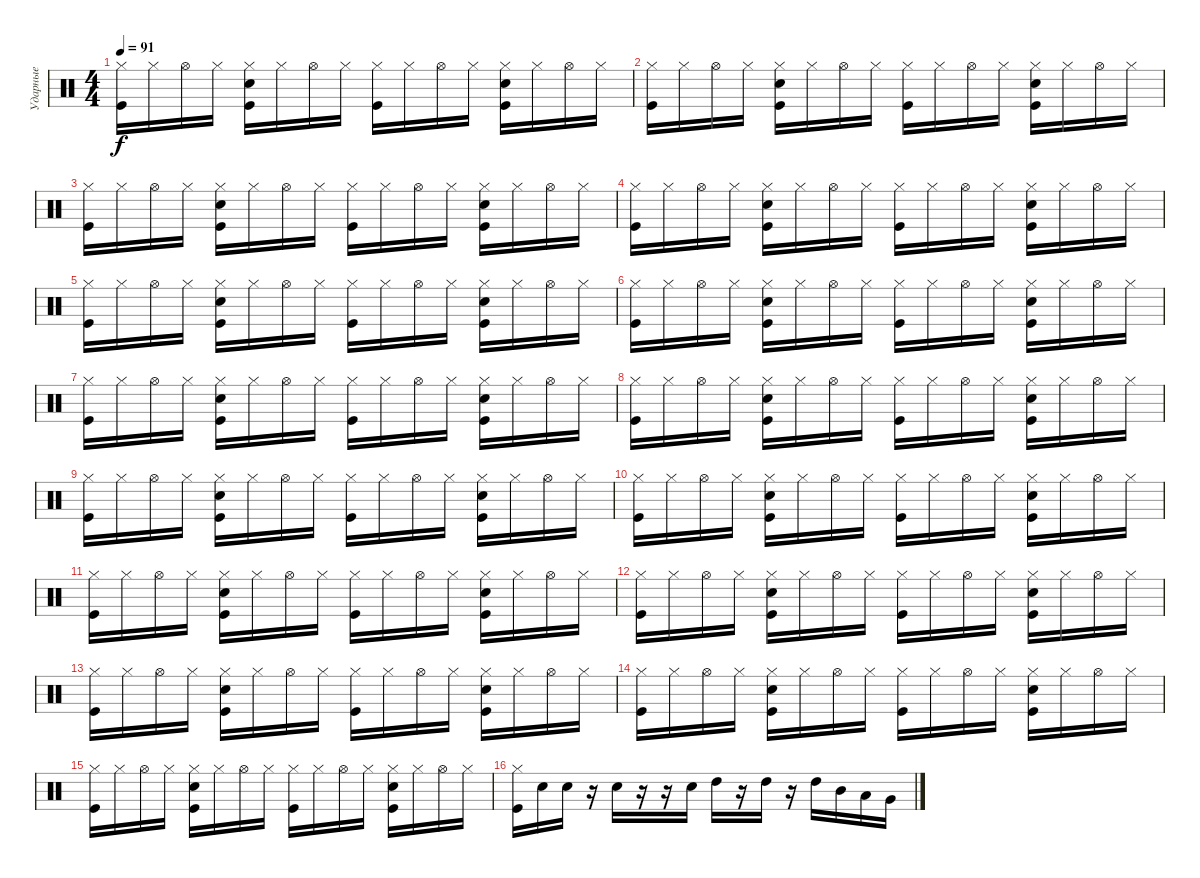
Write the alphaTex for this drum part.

\track ("Ударные" "Ударные") {instrument percussion}
\staff {score}
\articulation defaults
\ts (4 4)
\tempo 91
\clef neutral
\ks c
("Hi-Hat (closed)" "Kick (hit)").16{dy f} "Hi-Hat (closed)".16 "Hi-Hat (open)".16 "Hi-Hat (closed)".16 ("Hi-Hat (closed)" "Snare (hit) 2" "Kick (hit)").16 "Hi-Hat (closed)".16 "Hi-Hat (open)".16 "Hi-Hat (closed)".16 ("Hi-Hat (closed)" "Kick (hit)").16 "Hi-Hat (closed)".16 "Hi-Hat (open)".16 "Hi-Hat (closed)".16 ("Hi-Hat (closed)" "Snare (hit) 2" "Kick (hit)").16 "Hi-Hat (closed)".16 "Hi-Hat (open)".16 "Hi-Hat (closed)".16 |
("Hi-Hat (closed)" "Kick (hit)").16 "Hi-Hat (closed)".16 "Hi-Hat (open)".16 "Hi-Hat (closed)".16 ("Hi-Hat (closed)" "Snare (hit) 2" "Kick (hit)").16 "Hi-Hat (closed)".16 "Hi-Hat (open)".16 "Hi-Hat (closed)".16 ("Hi-Hat (closed)" "Kick (hit)").16 "Hi-Hat (closed)".16 "Hi-Hat (open)".16 "Hi-Hat (closed)".16 ("Hi-Hat (closed)" "Snare (hit) 2" "Kick (hit)").16 "Hi-Hat (closed)".16 "Hi-Hat (open)".16 "Hi-Hat (closed)".16 |
("Hi-Hat (closed)" "Kick (hit)").16 "Hi-Hat (closed)".16 "Hi-Hat (open)".16 "Hi-Hat (closed)".16 ("Hi-Hat (closed)" "Snare (hit) 2" "Kick (hit)").16 "Hi-Hat (closed)".16 "Hi-Hat (open)".16 "Hi-Hat (closed)".16 ("Hi-Hat (closed)" "Kick (hit)").16 "Hi-Hat (closed)".16 "Hi-Hat (open)".16 "Hi-Hat (closed)".16 ("Hi-Hat (closed)" "Snare (hit) 2" "Kick (hit)").16 "Hi-Hat (closed)".16 "Hi-Hat (open)".16 "Hi-Hat (closed)".16 |
("Hi-Hat (closed)" "Kick (hit)").16 "Hi-Hat (closed)".16 "Hi-Hat (open)".16 "Hi-Hat (closed)".16 ("Hi-Hat (closed)" "Snare (hit) 2" "Kick (hit)").16 "Hi-Hat (closed)".16 "Hi-Hat (open)".16 "Hi-Hat (closed)".16 ("Hi-Hat (closed)" "Kick (hit)").16 "Hi-Hat (closed)".16 "Hi-Hat (open)".16 "Hi-Hat (closed)".16 ("Hi-Hat (closed)" "Snare (hit) 2" "Kick (hit)").16 "Hi-Hat (closed)".16 "Hi-Hat (open)".16 "Hi-Hat (closed)".16 |
("Hi-Hat (closed)" "Kick (hit)").16 "Hi-Hat (closed)".16 "Hi-Hat (open)".16 "Hi-Hat (closed)".16 ("Hi-Hat (closed)" "Snare (hit) 2" "Kick (hit)").16 "Hi-Hat (closed)".16 "Hi-Hat (open)".16 "Hi-Hat (closed)".16 ("Hi-Hat (closed)" "Kick (hit)").16 "Hi-Hat (closed)".16 "Hi-Hat (open)".16 "Hi-Hat (closed)".16 ("Hi-Hat (closed)" "Snare (hit) 2" "Kick (hit)").16 "Hi-Hat (closed)".16 "Hi-Hat (open)".16 "Hi-Hat (closed)".16 |
("Hi-Hat (closed)" "Kick (hit)").16 "Hi-Hat (closed)".16 "Hi-Hat (open)".16 "Hi-Hat (closed)".16 ("Hi-Hat (closed)" "Snare (hit) 2" "Kick (hit)").16 "Hi-Hat (closed)".16 "Hi-Hat (open)".16 "Hi-Hat (closed)".16 ("Hi-Hat (closed)" "Kick (hit)").16 "Hi-Hat (closed)".16 "Hi-Hat (open)".16 "Hi-Hat (closed)".16 ("Hi-Hat (closed)" "Snare (hit) 2" "Kick (hit)").16 "Hi-Hat (closed)".16 "Hi-Hat (open)".16 "Hi-Hat (closed)".16 |
("Hi-Hat (closed)" "Kick (hit)").16 "Hi-Hat (closed)".16 "Hi-Hat (open)".16 "Hi-Hat (closed)".16 ("Hi-Hat (closed)" "Snare (hit) 2" "Kick (hit)").16 "Hi-Hat (closed)".16 "Hi-Hat (open)".16 "Hi-Hat (closed)".16 ("Hi-Hat (closed)" "Kick (hit)").16 "Hi-Hat (closed)".16 "Hi-Hat (open)".16 "Hi-Hat (closed)".16 ("Hi-Hat (closed)" "Snare (hit) 2" "Kick (hit)").16 "Hi-Hat (closed)".16 "Hi-Hat (open)".16 "Hi-Hat (closed)".16 |
("Hi-Hat (closed)" "Kick (hit)").16 "Hi-Hat (closed)".16 "Hi-Hat (open)".16 "Hi-Hat (closed)".16 ("Hi-Hat (closed)" "Snare (hit) 2" "Kick (hit)").16 "Hi-Hat (closed)".16 "Hi-Hat (open)".16 "Hi-Hat (closed)".16 ("Hi-Hat (closed)" "Kick (hit)").16 "Hi-Hat (closed)".16 "Hi-Hat (open)".16 "Hi-Hat (closed)".16 ("Hi-Hat (closed)" "Snare (hit) 2" "Kick (hit)").16 "Hi-Hat (closed)".16 "Hi-Hat (open)".16 "Hi-Hat (closed)".16 |
("Hi-Hat (closed)" "Kick (hit)").16 "Hi-Hat (closed)".16 "Hi-Hat (open)".16 "Hi-Hat (closed)".16 ("Hi-Hat (closed)" "Snare (hit) 2" "Kick (hit)").16 "Hi-Hat (closed)".16 "Hi-Hat (open)".16 "Hi-Hat (closed)".16 ("Hi-Hat (closed)" "Kick (hit)").16 "Hi-Hat (closed)".16 "Hi-Hat (open)".16 "Hi-Hat (closed)".16 ("Hi-Hat (closed)" "Snare (hit) 2" "Kick (hit)").16 "Hi-Hat (closed)".16 "Hi-Hat (open)".16 "Hi-Hat (closed)".16 |
("Hi-Hat (closed)" "Kick (hit)").16 "Hi-Hat (closed)".16 "Hi-Hat (open)".16 "Hi-Hat (closed)".16 ("Hi-Hat (closed)" "Snare (hit) 2" "Kick (hit)").16 "Hi-Hat (closed)".16 "Hi-Hat (open)".16 "Hi-Hat (closed)".16 ("Hi-Hat (closed)" "Kick (hit)").16 "Hi-Hat (closed)".16 "Hi-Hat (open)".16 "Hi-Hat (closed)".16 ("Hi-Hat (closed)" "Snare (hit) 2" "Kick (hit)").16 "Hi-Hat (closed)".16 "Hi-Hat (open)".16 "Hi-Hat (closed)".16 |
("Hi-Hat (closed)" "Kick (hit)").16 "Hi-Hat (closed)".16 "Hi-Hat (open)".16 "Hi-Hat (closed)".16 ("Hi-Hat (closed)" "Snare (hit) 2" "Kick (hit)").16 "Hi-Hat (closed)".16 "Hi-Hat (open)".16 "Hi-Hat (closed)".16 ("Hi-Hat (closed)" "Kick (hit)").16 "Hi-Hat (closed)".16 "Hi-Hat (open)".16 "Hi-Hat (closed)".16 ("Hi-Hat (closed)" "Snare (hit) 2" "Kick (hit)").16 "Hi-Hat (closed)".16 "Hi-Hat (open)".16 "Hi-Hat (closed)".16 |
("Hi-Hat (closed)" "Kick (hit)").16 "Hi-Hat (closed)".16 "Hi-Hat (open)".16 "Hi-Hat (closed)".16 ("Hi-Hat (closed)" "Snare (hit) 2" "Kick (hit)").16 "Hi-Hat (closed)".16 "Hi-Hat (open)".16 "Hi-Hat (closed)".16 ("Hi-Hat (closed)" "Kick (hit)").16 "Hi-Hat (closed)".16 "Hi-Hat (open)".16 "Hi-Hat (closed)".16 ("Hi-Hat (closed)" "Snare (hit) 2" "Kick (hit)").16 "Hi-Hat (closed)".16 "Hi-Hat (open)".16 "Hi-Hat (closed)".16 |
("Hi-Hat (closed)" "Kick (hit)").16 "Hi-Hat (closed)".16 "Hi-Hat (open)".16 "Hi-Hat (closed)".16 ("Hi-Hat (closed)" "Snare (hit) 2" "Kick (hit)").16 "Hi-Hat (closed)".16 "Hi-Hat (open)".16 "Hi-Hat (closed)".16 ("Hi-Hat (closed)" "Kick (hit)").16 "Hi-Hat (closed)".16 "Hi-Hat (open)".16 "Hi-Hat (closed)".16 ("Hi-Hat (closed)" "Snare (hit) 2" "Kick (hit)").16 "Hi-Hat (closed)".16 "Hi-Hat (open)".16 "Hi-Hat (closed)".16 |
("Hi-Hat (closed)" "Kick (hit)").16 "Hi-Hat (closed)".16 "Hi-Hat (open)".16 "Hi-Hat (closed)".16 ("Hi-Hat (closed)" "Snare (hit) 2" "Kick (hit)").16 "Hi-Hat (closed)".16 "Hi-Hat (open)".16 "Hi-Hat (closed)".16 ("Hi-Hat (closed)" "Kick (hit)").16 "Hi-Hat (closed)".16 "Hi-Hat (open)".16 "Hi-Hat (closed)".16 ("Hi-Hat (closed)" "Snare (hit) 2" "Kick (hit)").16 "Hi-Hat (closed)".16 "Hi-Hat (open)".16 "Hi-Hat (closed)".16 |
("Hi-Hat (closed)" "Kick (hit)").16 "Hi-Hat (closed)".16 "Hi-Hat (open)".16 "Hi-Hat (closed)".16 ("Hi-Hat (closed)" "Snare (hit) 2" "Kick (hit)").16 "Hi-Hat (closed)".16 "Hi-Hat (open)".16 "Hi-Hat (closed)".16 ("Hi-Hat (closed)" "Kick (hit)").16 "Hi-Hat (closed)".16 "Hi-Hat (open)".16 "Hi-Hat (closed)".16 ("Hi-Hat (closed)" "Snare (hit) 2" "Kick (hit)").16 "Hi-Hat (closed)".16 "Hi-Hat (open)".16 "Hi-Hat (closed)".16 |
("Hi-Hat (closed)" "Kick (hit)").16 "Snare (hit) 2".16 "Snare (hit) 2".16 r.16 "Snare (hit) 2".16 r.16 r.16 "Snare (hit) 2".16 "High Tom (hit)".16 r.16 "High Tom (hit)".16 r.16 "High Tom (hit)".16 "Mid Tom (hit)".16 "Low Tom (hit)".16 "Very Low Tom (hit)".16
